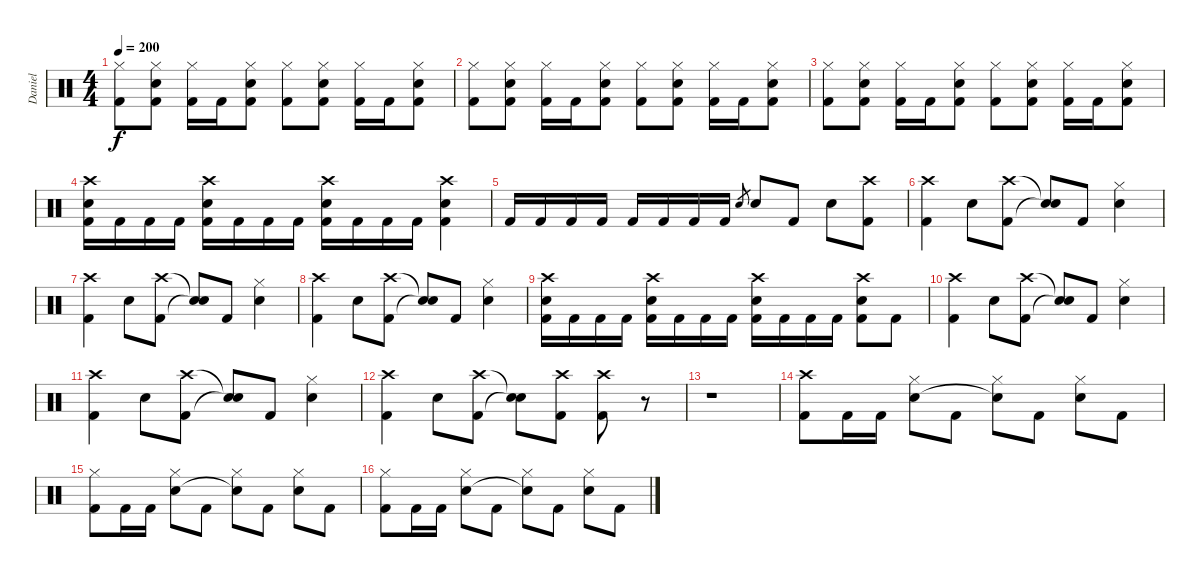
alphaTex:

\track ("Daniel" "Daniel") {instrument percussion}
\staff {score}
\articulation defaults
\ts (4 4)
\tempo 200
\clef neutral
\ks c
("Hi-Hat (closed)" "Kick (hit) 2").8{dy f} ("Hi-Hat (closed)" "Electric Snare (hit)" "Kick (hit) 2").8 ("Hi-Hat (closed)" "Kick (hit) 2").16 "Kick (hit) 2".16 ("Hi-Hat (closed)" "Electric Snare (hit)" "Kick (hit) 2").8 ("Hi-Hat (closed)" "Kick (hit) 2").8 ("Hi-Hat (closed)" "Electric Snare (hit)" "Kick (hit) 2").8 ("Hi-Hat (closed)" "Kick (hit) 2").16 "Kick (hit) 2".16 ("Hi-Hat (closed)" "Electric Snare (hit)" "Kick (hit) 2").8 |
("Hi-Hat (closed)" "Kick (hit) 2").8 ("Hi-Hat (closed)" "Electric Snare (hit)" "Kick (hit) 2").8 ("Hi-Hat (closed)" "Kick (hit) 2").16 "Kick (hit) 2".16 ("Hi-Hat (closed)" "Electric Snare (hit)" "Kick (hit) 2").8 ("Hi-Hat (closed)" "Kick (hit) 2").8 ("Hi-Hat (closed)" "Electric Snare (hit)" "Kick (hit) 2").8 ("Hi-Hat (closed)" "Kick (hit) 2").16 "Kick (hit) 2".16 ("Hi-Hat (closed)" "Electric Snare (hit)" "Kick (hit) 2").8 |
("Hi-Hat (closed)" "Kick (hit) 2").8 ("Hi-Hat (closed)" "Electric Snare (hit)" "Kick (hit) 2").8 ("Hi-Hat (closed)" "Kick (hit) 2").16 "Kick (hit) 2".16 ("Hi-Hat (closed)" "Electric Snare (hit)" "Kick (hit) 2").8 ("Hi-Hat (closed)" "Kick (hit) 2").8 ("Hi-Hat (closed)" "Electric Snare (hit)" "Kick (hit) 2").8 ("Hi-Hat (closed)" "Kick (hit) 2").16 "Kick (hit) 2".16 ("Hi-Hat (closed)" "Electric Snare (hit)" "Kick (hit) 2").8 |
("Crash high (hit)" "Electric Snare (hit)" "Kick (hit) 2").16 "Kick (hit) 2".16 "Kick (hit) 2".16 "Kick (hit) 2".16 ("Crash high (hit)" "Electric Snare (hit)" "Kick (hit) 2").16 "Kick (hit) 2".16 "Kick (hit) 2".16 "Kick (hit) 2".16 ("Crash high (hit)" "Electric Snare (hit)" "Kick (hit) 2").16 "Kick (hit) 2".16 "Kick (hit) 2".16 "Kick (hit) 2".16 ("Crash high (hit)" "Electric Snare (hit)" "Kick (hit) 2").4 |
"Kick (hit) 2".16 "Kick (hit) 2".16 "Kick (hit) 2".16 "Kick (hit) 2".16 "Kick (hit) 2".16 "Kick (hit) 2".16 "Kick (hit) 2".16 "Kick (hit) 2".16 "Electric Snare (hit)".8{gr} "Electric Snare (hit)".8 "Kick (hit) 2".8 "Electric Snare (hit)".8 ("Crash high (hit)" "Kick (hit) 2").8 |
("Crash high (hit)" "Kick (hit) 2").4 "Electric Snare (hit)".8 ("Crash high (hit)" "Kick (hit) 2").8 ("Snare (hit)"{t} "Snare (hit)"{t}).8 "Kick (hit) 2".8 ("Hi-Hat (closed)" "Electric Snare (hit)").4 |
("Crash high (hit)" "Kick (hit) 2").4 "Electric Snare (hit)".8 ("Crash high (hit)" "Kick (hit) 2").8 ("Snare (hit)"{t} "Snare (hit)"{t}).8 "Kick (hit) 2".8 ("Hi-Hat (closed)" "Electric Snare (hit)").4 |
("Crash high (hit)" "Kick (hit) 2").4 "Electric Snare (hit)".8 ("Crash high (hit)" "Kick (hit) 2").8 ("Snare (hit)"{t} "Snare (hit)"{t}).8 "Kick (hit) 2".8 ("Hi-Hat (closed)" "Electric Snare (hit)").4 |
("Crash high (hit)" "Electric Snare (hit)" "Kick (hit) 2").16 "Kick (hit) 2".16 "Kick (hit) 2".16 "Kick (hit) 2".16 ("Crash high (hit)" "Electric Snare (hit)" "Kick (hit) 2").16 "Kick (hit) 2".16 "Kick (hit) 2".16 "Kick (hit) 2".16 ("Crash high (hit)" "Electric Snare (hit)" "Kick (hit) 2").16 "Kick (hit) 2".16 "Kick (hit) 2".16 "Kick (hit) 2".16 ("Crash high (hit)" "Electric Snare (hit)" "Kick (hit) 2").8 "Kick (hit) 2".8 |
("Crash high (hit)" "Kick (hit) 2").4 "Electric Snare (hit)".8 ("Crash high (hit)" "Kick (hit) 2").8 ("Snare (hit)"{t} "Snare (hit)"{t}).8 "Kick (hit) 2".8 ("Hi-Hat (closed)" "Electric Snare (hit)").4 |
("Crash high (hit)" "Kick (hit) 2").4 "Electric Snare (hit)".8 ("Crash high (hit)" "Kick (hit) 2").8 ("Snare (hit)"{t} "Snare (hit)"{t}).8 "Kick (hit) 2".8 ("Hi-Hat (closed)" "Electric Snare (hit)").4 |
("Crash high (hit)" "Kick (hit) 2").4 "Electric Snare (hit)".8 ("Crash high (hit)" "Kick (hit) 2").8 ("Snare (hit)"{t} "Snare (hit)"{t}).8 ("Crash high (hit)" "Kick (hit) 2").8 ("Crash high (hit)" "Kick (hit) 2").8 r.8 |
r.1 |
("Crash high (hit)" "Kick (hit) 2").8 "Kick (hit) 2".16 "Kick (hit) 2".16 ("Hi-Hat (closed)" "Electric Snare (hit)").8 "Kick (hit) 2".8 ("Hi-Hat (closed)" "Snare (hit)"{t}).8 "Kick (hit) 2".8 ("Hi-Hat (closed)" "Electric Snare (hit)").8 "Kick (hit) 2".8 |
("Hi-Hat (closed)" "Kick (hit) 2").8 "Kick (hit) 2".16 "Kick (hit) 2".16 ("Hi-Hat (closed)" "Electric Snare (hit)").8 "Kick (hit) 2".8 ("Hi-Hat (closed)" "Snare (hit)"{t}).8 "Kick (hit) 2".8 ("Hi-Hat (closed)" "Electric Snare (hit)").8 "Kick (hit) 2".8 |
("Hi-Hat (closed)" "Kick (hit) 2").8 "Kick (hit) 2".16 "Kick (hit) 2".16 ("Hi-Hat (closed)" "Electric Snare (hit)").8 "Kick (hit) 2".8 ("Hi-Hat (closed)" "Snare (hit)"{t}).8 "Kick (hit) 2".8 ("Hi-Hat (closed)" "Electric Snare (hit)").8 "Kick (hit) 2".8
